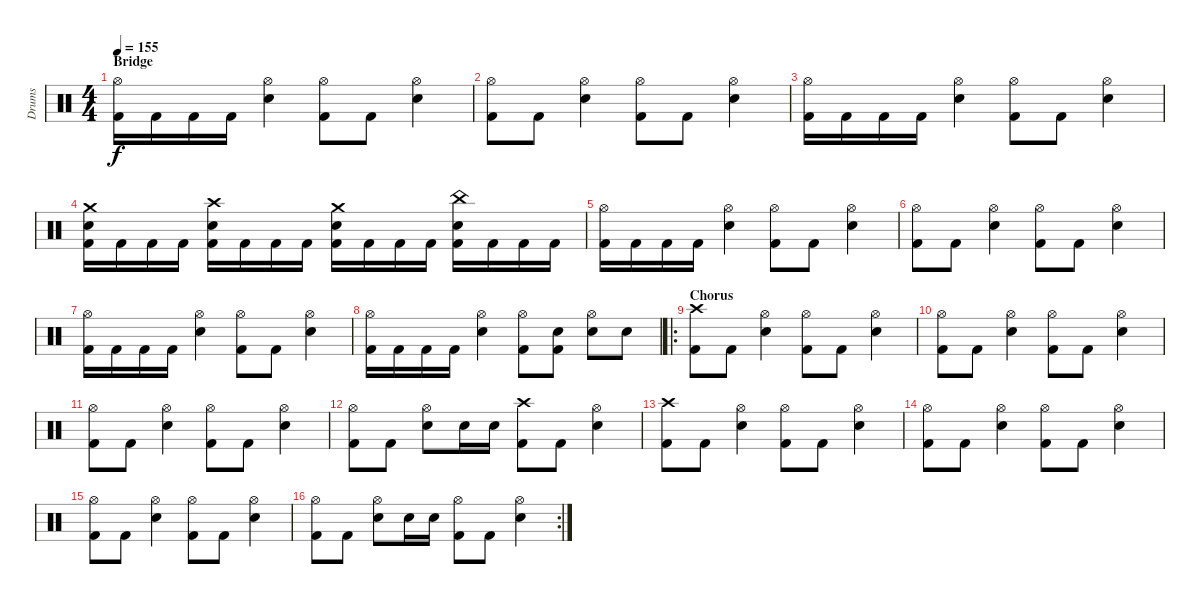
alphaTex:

\track ("Drums" "Drums") {instrument percussion}
\staff {score}
\articulation defaults
\ts (4 4)
\section ("" "Bridge")
\tempo 155
\clef neutral
\ks c
("Hi-Hat (open)" "Kick (hit) 2").16{dy f} "Kick (hit) 2".16 "Kick (hit) 2".16 "Kick (hit) 2".16 ("Hi-Hat (open)" "Snare (hit) 2").4 ("Hi-Hat (open)" "Kick (hit) 2").8 "Kick (hit) 2".8 ("Hi-Hat (open)" "Snare (hit) 2").4 |
("Hi-Hat (open)" "Kick (hit) 2").8 "Kick (hit) 2".8 ("Hi-Hat (open)" "Snare (hit) 2").4 ("Hi-Hat (open)" "Kick (hit) 2").8 "Kick (hit) 2".8 ("Hi-Hat (open)" "Snare (hit) 2").4 |
("Hi-Hat (open)" "Kick (hit) 2").16 "Kick (hit) 2".16 "Kick (hit) 2".16 "Kick (hit) 2".16 ("Hi-Hat (open)" "Snare (hit) 2").4 ("Hi-Hat (open)" "Kick (hit) 2").8 "Kick (hit) 2".8 ("Hi-Hat (open)" "Snare (hit) 2").4 |
("Crash medium (hit)" "Snare (hit) 2" "Kick (hit) 2").16 "Kick (hit) 2".16 "Kick (hit) 2".16 "Kick (hit) 2".16 ("Crash high (hit)" "Snare (hit) 2" "Kick (hit) 2").16 "Kick (hit) 2".16 "Kick (hit) 2".16 "Kick (hit) 2".16 ("Crash medium (hit)" "Snare (hit) 2" "Kick (hit) 2").16 "Kick (hit) 2".16 "Kick (hit) 2".16 "Kick (hit) 2".16 ("China (hit)" "Snare (hit) 2" "Kick (hit) 2").16 "Kick (hit) 2".16 "Kick (hit) 2".16 "Kick (hit) 2".16 |
("Hi-Hat (open)" "Kick (hit) 2").16 "Kick (hit) 2".16 "Kick (hit) 2".16 "Kick (hit) 2".16 ("Hi-Hat (open)" "Snare (hit) 2").4 ("Hi-Hat (open)" "Kick (hit) 2").8 "Kick (hit) 2".8 ("Hi-Hat (open)" "Snare (hit) 2").4 |
("Hi-Hat (open)" "Kick (hit) 2").8 "Kick (hit) 2".8 ("Hi-Hat (open)" "Snare (hit) 2").4 ("Hi-Hat (open)" "Kick (hit) 2").8 "Kick (hit) 2".8 ("Hi-Hat (open)" "Snare (hit) 2").4 |
("Hi-Hat (open)" "Kick (hit) 2").16 "Kick (hit) 2".16 "Kick (hit) 2".16 "Kick (hit) 2".16 ("Hi-Hat (open)" "Snare (hit) 2").4 ("Hi-Hat (open)" "Kick (hit) 2").8 "Kick (hit) 2".8 ("Hi-Hat (open)" "Snare (hit) 2").4 |
("Hi-Hat (open)" "Kick (hit) 2").16 "Kick (hit) 2".16 "Kick (hit) 2".16 "Kick (hit) 2".16 ("Hi-Hat (open)" "Snare (hit) 2").4 ("Hi-Hat (open)" "Kick (hit) 2").8 ("Snare (hit) 2" "Kick (hit) 2").8 ("Hi-Hat (open)" "Snare (hit) 2").8 "Snare (hit) 2".8 |
\ro
\section ("" "Chorus")
("Crash high (hit)" "Kick (hit) 2").8 "Kick (hit) 2".8 ("Hi-Hat (open)" "Snare (hit) 2").4 ("Hi-Hat (open)" "Kick (hit) 2").8 "Kick (hit) 2".8 ("Hi-Hat (open)" "Snare (hit) 2").4 |
("Hi-Hat (open)" "Kick (hit) 2").8 "Kick (hit) 2".8 ("Hi-Hat (open)" "Snare (hit) 2").4 ("Hi-Hat (open)" "Kick (hit) 2").8 "Kick (hit) 2".8 ("Hi-Hat (open)" "Snare (hit) 2").4 |
("Hi-Hat (open)" "Kick (hit) 2").8 "Kick (hit) 2".8 ("Hi-Hat (open)" "Snare (hit) 2").4 ("Hi-Hat (open)" "Kick (hit) 2").8 "Kick (hit) 2".8 ("Hi-Hat (open)" "Snare (hit) 2").4 |
("Hi-Hat (open)" "Kick (hit) 2").8 "Kick (hit) 2".8 ("Hi-Hat (open)" "Snare (hit) 2").8 "Snare (hit) 2".16 "Snare (hit) 2".16 ("Crash high (hit)" "Kick (hit) 2").8 "Kick (hit) 2".8 ("Hi-Hat (open)" "Snare (hit) 2").4 |
("Crash high (hit)" "Kick (hit) 2").8 "Kick (hit) 2".8 ("Hi-Hat (open)" "Snare (hit) 2").4 ("Hi-Hat (open)" "Kick (hit) 2").8 "Kick (hit) 2".8 ("Hi-Hat (open)" "Snare (hit) 2").4 |
("Hi-Hat (open)" "Kick (hit) 2").8 "Kick (hit) 2".8 ("Hi-Hat (open)" "Snare (hit) 2").4 ("Hi-Hat (open)" "Kick (hit) 2").8 "Kick (hit) 2".8 ("Hi-Hat (open)" "Snare (hit) 2").4 |
("Hi-Hat (open)" "Kick (hit) 2").8 "Kick (hit) 2".8 ("Hi-Hat (open)" "Snare (hit) 2").4 ("Hi-Hat (open)" "Kick (hit) 2").8 "Kick (hit) 2".8 ("Hi-Hat (open)" "Snare (hit) 2").4 |
\rc 2
("Hi-Hat (open)" "Kick (hit) 2").8 "Kick (hit) 2".8 ("Hi-Hat (open)" "Snare (hit) 2").8 "Snare (hit) 2".16 "Snare (hit) 2".16 ("Hi-Hat (open)" "Kick (hit) 2").8 "Kick (hit) 2".8 ("Hi-Hat (open)" "Snare (hit) 2").4
